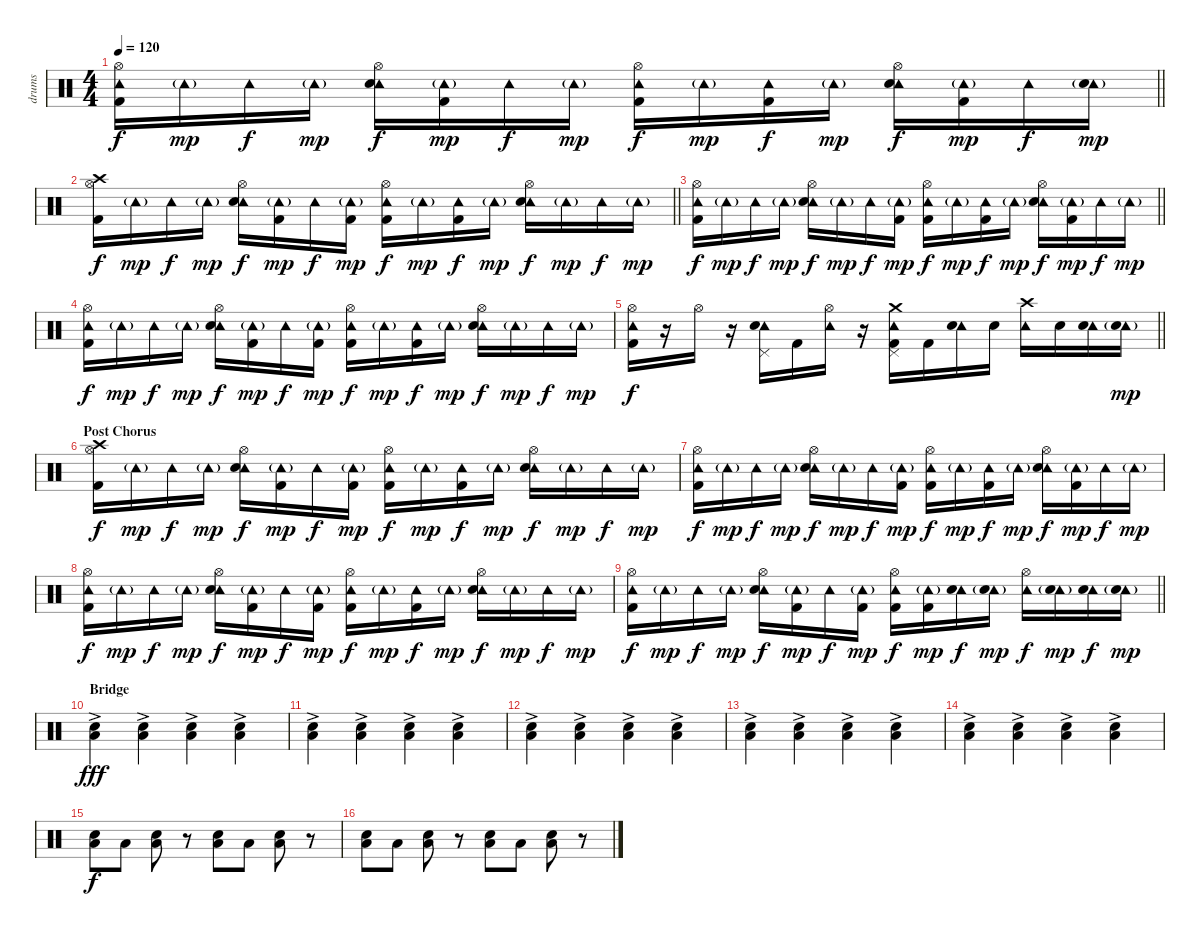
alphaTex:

\track ("drums" "drums") {instrument percussion}
\staff {score}
\articulation defaults
\ts (4 4)
\tempo 120
\clef neutral
\barLineRight lightlight
\ks c
("Hi-Hat (open)" "Tambourine (hit)" "Kick (hit) 2").16{dy f} "Tambourine (hit)"{g}.16{dy mp} "Tambourine (hit)".16{dy f} "Tambourine (hit)"{g}.16{dy mp} ("Tambourine (hit)" "Hi-Hat (open)" "Electric Snare (hit)").16{dy f} ("Tambourine (hit)"{g} "Kick (hit) 2").16{dy mp} "Tambourine (hit)".16{dy f} "Tambourine (hit)"{g}.16{dy mp} ("Tambourine (hit)" "Hi-Hat (open)" "Kick (hit) 2").16{dy f} "Tambourine (hit)"{g}.16{dy mp} ("Tambourine (hit)" "Kick (hit) 2").16{dy f} "Tambourine (hit)"{g}.16{dy mp} ("Tambourine (hit)" "Hi-Hat (open)" "Electric Snare (hit)").16{dy f} ("Tambourine (hit)"{g} "Kick (hit) 2").16{dy mp} "Tambourine (hit)".16{dy f} ("Tambourine (hit)"{g} "Electric Snare (hit)").16{dy mp} |
\barLineRight lightlight
("Hi-Hat (open)" "Crash high (hit)" "Kick (hit) 2").16{dy f} "Tambourine (hit)"{g}.16{dy mp} "Tambourine (hit)".16{dy f} "Tambourine (hit)"{g}.16{dy mp} ("Tambourine (hit)" "Hi-Hat (open)" "Electric Snare (hit)").16{dy f} ("Tambourine (hit)"{g} "Kick (hit) 2").16{dy mp} "Tambourine (hit)".16{dy f} ("Tambourine (hit)"{g} "Kick (hit) 2").16{dy mp} ("Tambourine (hit)" "Hi-Hat (open)" "Kick (hit) 2").16{dy f} "Tambourine (hit)"{g}.16{dy mp} ("Tambourine (hit)" "Kick (hit) 2").16{dy f} "Tambourine (hit)"{g}.16{dy mp} ("Tambourine (hit)" "Hi-Hat (open)" "Electric Snare (hit)").16{dy f} "Tambourine (hit)"{g}.16{dy mp} "Tambourine (hit)".16{dy f} "Tambourine (hit)"{g}.16{dy mp} |
\barLineRight lightlight
("Hi-Hat (open)" "Tambourine (hit)" "Kick (hit) 2").16{dy f} "Tambourine (hit)"{g}.16{dy mp} "Tambourine (hit)".16{dy f} "Tambourine (hit)"{g}.16{dy mp} ("Tambourine (hit)" "Hi-Hat (open)" "Electric Snare (hit)").16{dy f} "Tambourine (hit)"{g}.16{dy mp} "Tambourine (hit)".16{dy f} ("Tambourine (hit)"{g} "Kick (hit) 2").16{dy mp} ("Tambourine (hit)" "Hi-Hat (open)" "Kick (hit) 2").16{dy f} "Tambourine (hit)"{g}.16{dy mp} ("Tambourine (hit)" "Kick (hit) 2").16{dy f} "Tambourine (hit)"{g}.16{dy mp} ("Tambourine (hit)" "Hi-Hat (open)" "Electric Snare (hit)").16{dy f} ("Tambourine (hit)"{g} "Kick (hit) 2").16{dy mp} "Tambourine (hit)".16{dy f} "Tambourine (hit)"{g}.16{dy mp} |
("Hi-Hat (open)" "Tambourine (hit)" "Kick (hit) 2").16{dy f} "Tambourine (hit)"{g}.16{dy mp} "Tambourine (hit)".16{dy f} "Tambourine (hit)"{g}.16{dy mp} ("Tambourine (hit)" "Hi-Hat (open)" "Electric Snare (hit)").16{dy f} ("Tambourine (hit)"{g} "Kick (hit) 2").16{dy mp} "Tambourine (hit)".16{dy f} ("Tambourine (hit)"{g} "Kick (hit) 2").16{dy mp} ("Tambourine (hit)" "Hi-Hat (open)" "Kick (hit) 2").16{dy f} "Tambourine (hit)"{g}.16{dy mp} ("Tambourine (hit)" "Kick (hit) 2").16{dy f} "Tambourine (hit)"{g}.16{dy mp} ("Tambourine (hit)" "Hi-Hat (open)" "Electric Snare (hit)").16{dy f} "Tambourine (hit)"{g}.16{dy mp} "Tambourine (hit)".16{dy f} "Tambourine (hit)"{g}.16{dy mp} |
\barLineRight lightlight
("Hi-Hat (open)" "Tambourine (hit)" "Kick (hit) 2").16{dy f} r.16 "Hi-Hat (open)".16 r.16 ("Tambourine (hit)" "Pedal Hi-Hat (hit)" "Electric Snare (hit)").16 "Kick (hit) 2".16 ("Tambourine (hit)" "Hi-Hat (open)").16 r.16 ("Tambourine (hit)" "Pedal Hi-Hat (hit)" "Crash medium (hit)" "Kick (hit) 2").16 "Kick (hit) 2".16 ("Tambourine (hit)" "Electric Snare (hit)").16 "Electric Snare (hit)".16 ("Tambourine (hit)" "Crash high (hit)").16 "Electric Snare (hit)".16 ("Tambourine (hit)" "Electric Snare (hit)").16 ("Tambourine (hit)"{g} "Electric Snare (hit)").16{dy mp} |
\section ("" "Post Chorus")
("Hi-Hat (open)" "Crash high (hit)" "Kick (hit) 2").16{dy f} "Tambourine (hit)"{g}.16{dy mp} "Tambourine (hit)".16{dy f} "Tambourine (hit)"{g}.16{dy mp} ("Tambourine (hit)" "Hi-Hat (open)" "Electric Snare (hit)").16{dy f} ("Tambourine (hit)"{g} "Kick (hit) 2").16{dy mp} "Tambourine (hit)".16{dy f} ("Tambourine (hit)"{g} "Kick (hit) 2").16{dy mp} ("Tambourine (hit)" "Hi-Hat (open)" "Kick (hit) 2").16{dy f} "Tambourine (hit)"{g}.16{dy mp} ("Tambourine (hit)" "Kick (hit) 2").16{dy f} "Tambourine (hit)"{g}.16{dy mp} ("Tambourine (hit)" "Hi-Hat (open)" "Electric Snare (hit)").16{dy f} "Tambourine (hit)"{g}.16{dy mp} "Tambourine (hit)".16{dy f} "Tambourine (hit)"{g}.16{dy mp} |
("Hi-Hat (open)" "Tambourine (hit)" "Kick (hit) 2").16{dy f} "Tambourine (hit)"{g}.16{dy mp} "Tambourine (hit)".16{dy f} "Tambourine (hit)"{g}.16{dy mp} ("Tambourine (hit)" "Hi-Hat (open)" "Electric Snare (hit)").16{dy f} "Tambourine (hit)"{g}.16{dy mp} "Tambourine (hit)".16{dy f} ("Tambourine (hit)"{g} "Kick (hit) 2").16{dy mp} ("Tambourine (hit)" "Hi-Hat (open)" "Kick (hit) 2").16{dy f} "Tambourine (hit)"{g}.16{dy mp} ("Tambourine (hit)" "Kick (hit) 2").16{dy f} "Tambourine (hit)"{g}.16{dy mp} ("Tambourine (hit)" "Hi-Hat (open)" "Electric Snare (hit)").16{dy f} ("Tambourine (hit)"{g} "Kick (hit) 2").16{dy mp} "Tambourine (hit)".16{dy f} "Tambourine (hit)"{g}.16{dy mp} |
("Hi-Hat (open)" "Tambourine (hit)" "Kick (hit) 2").16{dy f} "Tambourine (hit)"{g}.16{dy mp} "Tambourine (hit)".16{dy f} "Tambourine (hit)"{g}.16{dy mp} ("Tambourine (hit)" "Hi-Hat (open)" "Electric Snare (hit)").16{dy f} ("Tambourine (hit)"{g} "Kick (hit) 2").16{dy mp} "Tambourine (hit)".16{dy f} ("Tambourine (hit)"{g} "Kick (hit) 2").16{dy mp} ("Tambourine (hit)" "Hi-Hat (open)" "Kick (hit) 2").16{dy f} "Tambourine (hit)"{g}.16{dy mp} ("Tambourine (hit)" "Kick (hit) 2").16{dy f} "Tambourine (hit)"{g}.16{dy mp} ("Tambourine (hit)" "Hi-Hat (open)" "Electric Snare (hit)").16{dy f} "Tambourine (hit)"{g}.16{dy mp} "Tambourine (hit)".16{dy f} "Tambourine (hit)"{g}.16{dy mp} |
\barLineRight lightlight
("Hi-Hat (open)" "Tambourine (hit)" "Kick (hit) 2").16{dy f} "Tambourine (hit)"{g}.16{dy mp} "Tambourine (hit)".16{dy f} "Tambourine (hit)"{g}.16{dy mp} ("Tambourine (hit)" "Hi-Hat (open)" "Electric Snare (hit)").16{dy f} ("Tambourine (hit)"{g} "Kick (hit) 2").16{dy mp} "Tambourine (hit)".16{dy f} ("Tambourine (hit)"{g} "Kick (hit) 2").16{dy mp} ("Tambourine (hit)" "Hi-Hat (open)" "Kick (hit) 2").16{dy f} ("Tambourine (hit)"{g} "Kick (hit) 2").16{dy mp} ("Tambourine (hit)" "Electric Snare (hit)").16{dy f} ("Tambourine (hit)"{g} "Electric Snare (hit)").16{dy mp} ("Tambourine (hit)" "Hi-Hat (open)").16{dy f} ("Tambourine (hit)"{g} "Electric Snare (hit)").16{dy mp} ("Tambourine (hit)" "Electric Snare (hit)").16{dy f} ("Tambourine (hit)"{g} "Electric Snare (hit)").16{dy mp} |
\section ("" "Bridge")
("Low Floor Tom (hit)" "Hand Clap (hit)"{ac}).4{dy fff} ("Low Floor Tom (hit)" "Hand Clap (hit)"{ac}).4 ("Low Floor Tom (hit)" "Hand Clap (hit)"{ac}).4 ("Low Floor Tom (hit)" "Hand Clap (hit)"{ac}).4 |
("Low Floor Tom (hit)" "Hand Clap (hit)"{ac}).4 ("Low Floor Tom (hit)" "Hand Clap (hit)"{ac}).4 ("Low Floor Tom (hit)" "Hand Clap (hit)"{ac}).4 ("Low Floor Tom (hit)" "Hand Clap (hit)"{ac}).4 |
("Low Floor Tom (hit)" "Hand Clap (hit)"{ac}).4 ("Low Floor Tom (hit)" "Hand Clap (hit)"{ac}).4 ("Low Floor Tom (hit)" "Hand Clap (hit)"{ac}).4 ("Low Floor Tom (hit)" "Hand Clap (hit)"{ac}).4 |
("Low Floor Tom (hit)" "Hand Clap (hit)"{ac}).4 ("Low Floor Tom (hit)" "Hand Clap (hit)"{ac}).4 ("Low Floor Tom (hit)" "Hand Clap (hit)"{ac}).4 ("Low Floor Tom (hit)" "Hand Clap (hit)"{ac}).4 |
("Low Floor Tom (hit)" "Hand Clap (hit)"{ac}).4 ("Low Floor Tom (hit)" "Hand Clap (hit)"{ac}).4 ("Low Floor Tom (hit)" "Hand Clap (hit)"{ac}).4 ("Low Floor Tom (hit)" "Hand Clap (hit)"{ac}).4 |
("Low Floor Tom (hit)" "Hand Clap (hit)").8{dy f} "Low Tom (hit)".8 ("Low Floor Tom (hit)" "Hand Clap (hit)").8 r.8 ("Low Floor Tom (hit)" "Hand Clap (hit)").8 "Low Tom (hit)".8 ("Low Floor Tom (hit)" "Hand Clap (hit)").8 r.8 |
("Low Floor Tom (hit)" "Hand Clap (hit)").8 "Low Tom (hit)".8 ("Low Floor Tom (hit)" "Hand Clap (hit)").8 r.8 ("Low Floor Tom (hit)" "Hand Clap (hit)").8 "Low Tom (hit)".8 ("Low Floor Tom (hit)" "Hand Clap (hit)").8 r.8
